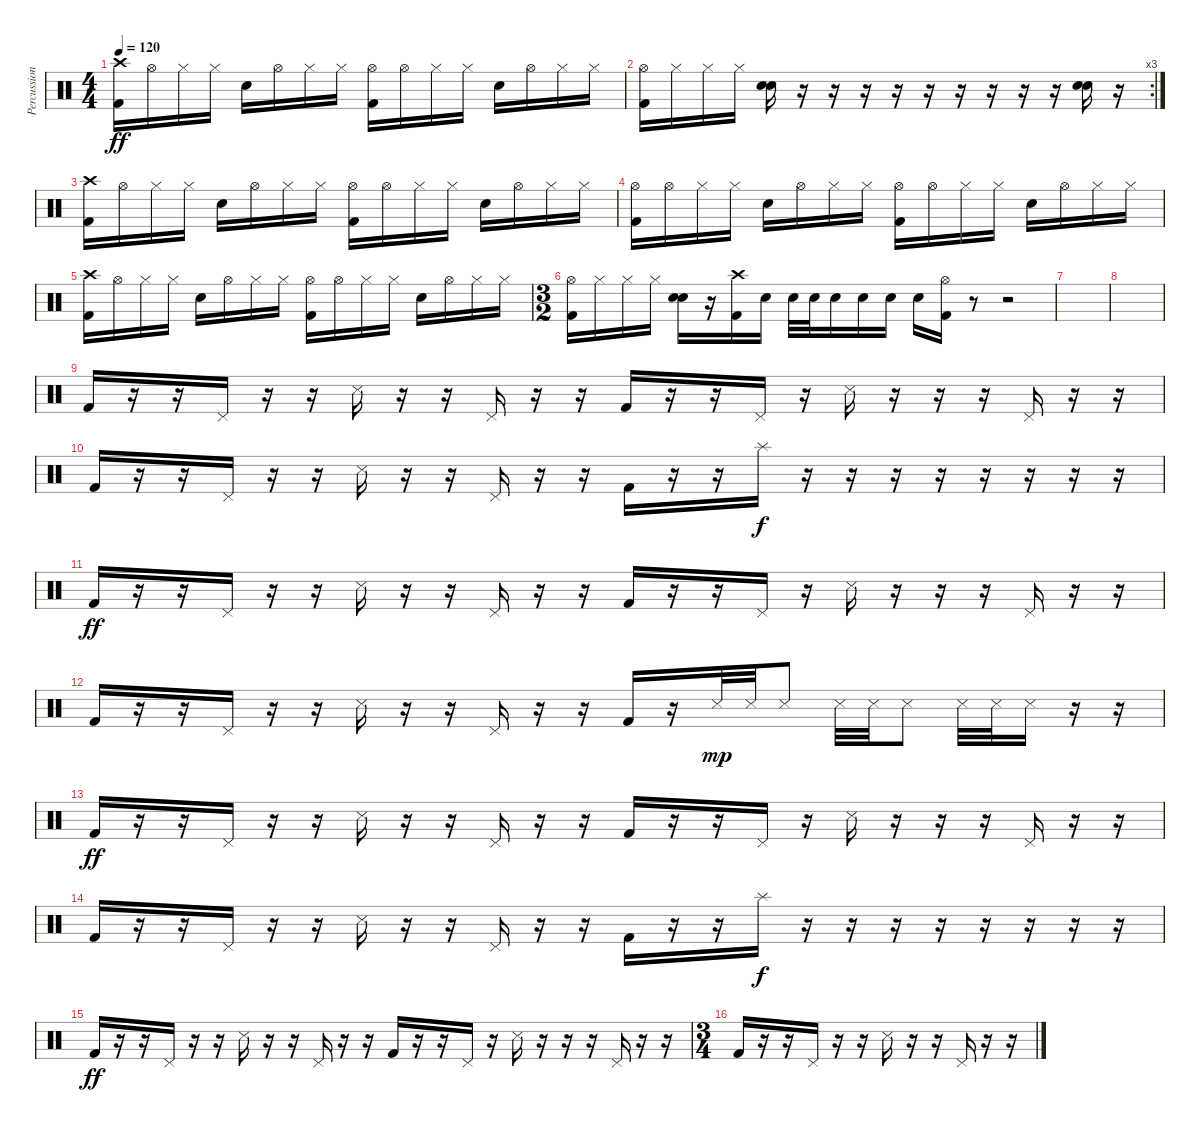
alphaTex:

\track ("Percussion" "Percussion") {instrument percussion}
\staff {score}
\articulation defaults
\ts (4 4)
\tempo 120
\clef neutral
\ks c
("Kick (hit) 2" "Crash high (hit)").16{dy ff} "Hi-Hat (open)".16 "Hi-Hat (closed)".16 "Hi-Hat (closed)".16 "Snare (hit) 2".16 "Hi-Hat (open)".16 "Hi-Hat (closed)".16 "Hi-Hat (closed)".16 ("Kick (hit) 2" "Hi-Hat (open)").16 "Hi-Hat (open)".16 "Hi-Hat (closed)".16 "Hi-Hat (closed)".16 "Snare (hit) 2".16 "Hi-Hat (open)".16 "Hi-Hat (closed)".16 "Hi-Hat (closed)".16 |
\rc 3
("Kick (hit) 2" "Hi-Hat (open)").16 "Hi-Hat (closed)".16 "Hi-Hat (closed)".16 "Hi-Hat (closed)".16 ("Snare (hit) 2" "Snare (hit) 2").16{bd 480} r.16 r.16 r.16 r.16 r.16 r.16 r.16 r.16 r.16 ("Snare (hit) 2" "Snare (hit) 2").16{bu 480} r.16 |
("Kick (hit) 2" "Crash high (hit)").16 "Hi-Hat (open)".16 "Hi-Hat (closed)".16 "Hi-Hat (closed)".16 "Snare (hit) 2".16 "Hi-Hat (open)".16 "Hi-Hat (closed)".16 "Hi-Hat (closed)".16 ("Kick (hit) 2" "Hi-Hat (open)").16 "Hi-Hat (open)".16 "Hi-Hat (closed)".16 "Hi-Hat (closed)".16 "Snare (hit) 2".16 "Hi-Hat (open)".16 "Hi-Hat (closed)".16 "Hi-Hat (closed)".16 |
("Kick (hit) 2" "Hi-Hat (open)").16 "Hi-Hat (open)".16 "Hi-Hat (closed)".16 "Hi-Hat (closed)".16 "Snare (hit) 2".16 "Hi-Hat (open)".16 "Hi-Hat (closed)".16 "Hi-Hat (closed)".16 ("Kick (hit) 2" "Hi-Hat (open)").16 "Hi-Hat (open)".16 "Hi-Hat (closed)".16 "Hi-Hat (closed)".16 "Snare (hit) 2".16 "Hi-Hat (open)".16 "Hi-Hat (closed)".16 "Hi-Hat (closed)".16 |
("Kick (hit) 2" "Crash high (hit)").16 "Hi-Hat (open)".16 "Hi-Hat (closed)".16 "Hi-Hat (closed)".16 "Snare (hit) 2".16 "Hi-Hat (open)".16 "Hi-Hat (closed)".16 "Hi-Hat (closed)".16 ("Kick (hit) 2" "Hi-Hat (open)").16 "Hi-Hat (open)".16 "Hi-Hat (closed)".16 "Hi-Hat (closed)".16 "Snare (hit) 2".16 "Hi-Hat (open)".16 "Hi-Hat (closed)".16 "Hi-Hat (closed)".16 |
\ts (3 2)
("Kick (hit) 2" "Hi-Hat (open)").16 "Hi-Hat (closed)".16 "Hi-Hat (closed)".16 "Hi-Hat (closed)".16 ("Snare (hit) 2" "Snare (hit) 2").16{bd 480} r.16 ("Kick (hit) 2" "Crash high (hit)").16 "Snare (hit) 2".16 "Snare (hit) 2".32 "Snare (hit) 2".32 "Snare (hit) 2".16 "Snare (hit) 2".16 "Snare (hit) 2".16 "Snare (hit) 2".16 ("Kick (hit) 2" "Hi-Hat (open)").16 r.8 r.2 |
|
|
"Kick (hit) 2".16 r.16 r.16 "Pedal Hi-Hat (hit)".16 r.16 r.16 "Snare (side stick) 3".16 r.16 r.16 "Pedal Hi-Hat (hit)".16 r.16 r.16 "Kick (hit) 2".16 r.16 r.16 "Pedal Hi-Hat (hit)".16 r.16 "Snare (side stick) 3".16 r.16 r.16 r.16 "Pedal Hi-Hat (hit)".16 r.16 r.16 |
"Kick (hit) 2".16 r.16 r.16 "Pedal Hi-Hat (hit)".16 r.16 r.16 "Snare (side stick) 3".16 r.16 r.16 "Pedal Hi-Hat (hit)".16 r.16 r.16 "Kick (hit) 2".16 r.16 r.16 "Splash (hit)".16{dy f} r.16 r.16 r.16 r.16 r.16 r.16 r.16 r.16 |
"Kick (hit) 2".16{dy ff} r.16 r.16 "Pedal Hi-Hat (hit)".16 r.16 r.16 "Snare (side stick) 3".16 r.16 r.16 "Pedal Hi-Hat (hit)".16 r.16 r.16 "Kick (hit) 2".16 r.16 r.16 "Pedal Hi-Hat (hit)".16 r.16 "Snare (side stick) 3".16 r.16 r.16 r.16 "Pedal Hi-Hat (hit)".16 r.16 r.16 |
"Kick (hit) 2".16 r.16 r.16 "Pedal Hi-Hat (hit)".16 r.16 r.16 "Snare (side stick) 3".16 r.16 r.16 "Pedal Hi-Hat (hit)".16 r.16 r.16 "Kick (hit) 2".16 r.16 "Snare (side stick) 3".32{dy mp} "Snare (side stick) 3".32 "Snare (side stick) 3".8 "Snare (side stick) 3".32 "Snare (side stick) 3".32 "Snare (side stick) 3".8 "Snare (side stick) 3".32 "Snare (side stick) 3".32 "Snare (side stick) 3".16 r.16 r.16 |
"Kick (hit) 2".16{dy ff} r.16 r.16 "Pedal Hi-Hat (hit)".16 r.16 r.16 "Snare (side stick) 3".16 r.16 r.16 "Pedal Hi-Hat (hit)".16 r.16 r.16 "Kick (hit) 2".16 r.16 r.16 "Pedal Hi-Hat (hit)".16 r.16 "Snare (side stick) 3".16 r.16 r.16 r.16 "Pedal Hi-Hat (hit)".16 r.16 r.16 |
"Kick (hit) 2".16 r.16 r.16 "Pedal Hi-Hat (hit)".16 r.16 r.16 "Snare (side stick) 3".16 r.16 r.16 "Pedal Hi-Hat (hit)".16 r.16 r.16 "Kick (hit) 2".16 r.16 r.16 "Splash (hit)".16{dy f} r.16 r.16 r.16 r.16 r.16 r.16 r.16 r.16 |
"Kick (hit) 2".16{dy ff} r.16 r.16 "Pedal Hi-Hat (hit)".16 r.16 r.16 "Snare (side stick) 3".16 r.16 r.16 "Pedal Hi-Hat (hit)".16 r.16 r.16 "Kick (hit) 2".16 r.16 r.16 "Pedal Hi-Hat (hit)".16 r.16 "Snare (side stick) 3".16 r.16 r.16 r.16 "Pedal Hi-Hat (hit)".16 r.16 r.16 |
\ts (3 4)
"Kick (hit) 2".16 r.16 r.16 "Pedal Hi-Hat (hit)".16 r.16 r.16 "Snare (side stick) 3".16 r.16 r.16 "Pedal Hi-Hat (hit)".16 r.16 r.16
